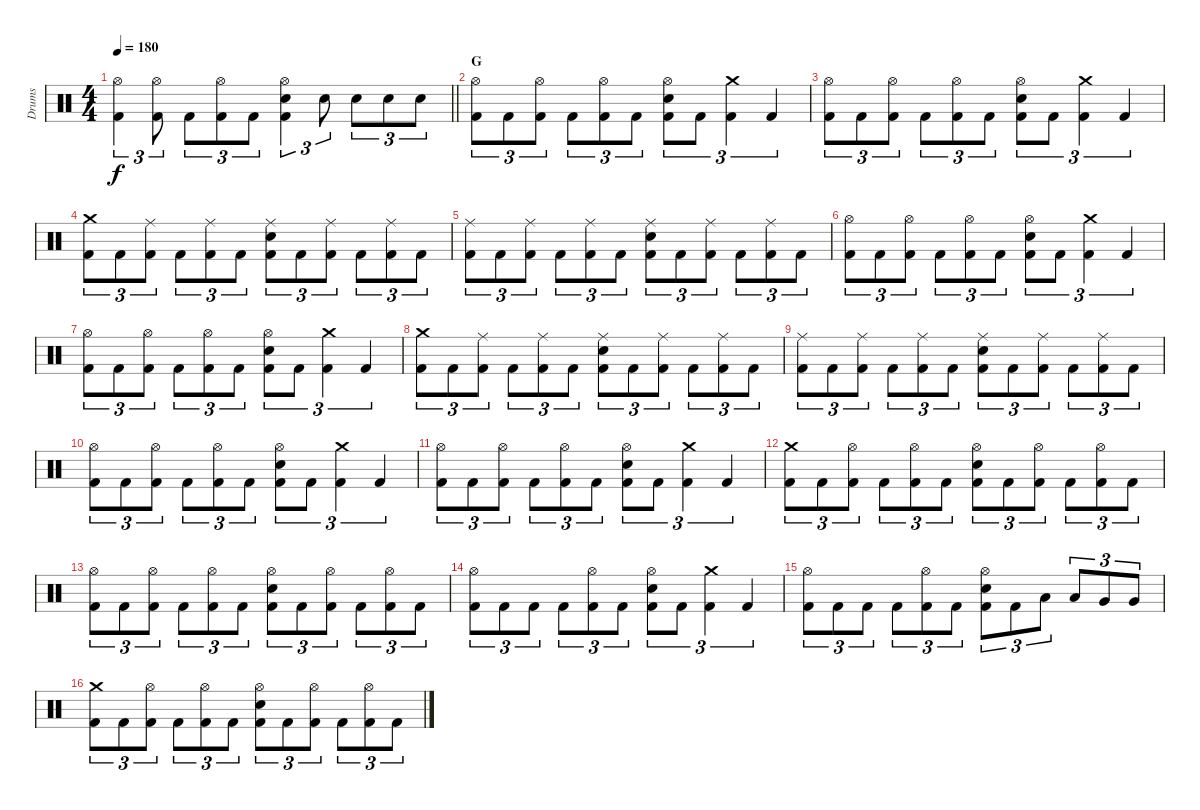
\track ("Drums" "Drums") {instrument percussion}
\staff {score}
\articulation defaults
\ts (4 4)
\tempo 180
\clef neutral
\barLineRight lightlight
\ks c
("Hi-Hat (open)" "Kick (hit) 2").4{tu (3 2) dy f} ("Hi-Hat (open)" "Kick (hit) 2").8{tu (3 2)} "Kick (hit) 2".8{tu (3 2)} ("Hi-Hat (open)" "Kick (hit) 2").8{tu (3 2)} "Kick (hit) 2".8{tu (3 2)} ("Hi-Hat (open)" "Electric Snare (hit)" "Kick (hit) 2").4{tu (3 2)} "Electric Snare (hit)".8{tu (3 2)} "Electric Snare (hit)".8{tu (3 2)} "Electric Snare (hit)".8{tu (3 2)} "Electric Snare (hit)".8{tu (3 2)} |
\section ("" "G")
("Hi-Hat (open)" "Kick (hit) 2").8{tu (3 2)} "Kick (hit) 2".8{tu (3 2)} ("Hi-Hat (open)" "Kick (hit) 2").8{tu (3 2)} "Kick (hit) 2".8{tu (3 2)} ("Hi-Hat (open)" "Kick (hit) 2").8{tu (3 2)} "Kick (hit) 2".8{tu (3 2)} ("Hi-Hat (open)" "Electric Snare (hit)" "Kick (hit) 2").8{tu (3 2)} "Kick (hit) 2".8{tu (3 2)} ("Crash medium (hit)" "Kick (hit) 2").4{tu (3 2)} "Kick (hit) 2".4{tu (3 2)} |
("Hi-Hat (open)" "Kick (hit) 2").8{tu (3 2)} "Kick (hit) 2".8{tu (3 2)} ("Hi-Hat (open)" "Kick (hit) 2").8{tu (3 2)} "Kick (hit) 2".8{tu (3 2)} ("Hi-Hat (open)" "Kick (hit) 2").8{tu (3 2)} "Kick (hit) 2".8{tu (3 2)} ("Hi-Hat (open)" "Electric Snare (hit)" "Kick (hit) 2").8{tu (3 2)} "Kick (hit) 2".8{tu (3 2)} ("Crash medium (hit)" "Kick (hit) 2").4{tu (3 2)} "Kick (hit) 2".4{tu (3 2)} |
("Crash medium (hit)" "Kick (hit) 2").8{tu (3 2)} "Kick (hit) 2".8{tu (3 2)} ("Ride (middle)" "Kick (hit) 2").8{tu (3 2)} "Kick (hit) 2".8{tu (3 2)} ("Ride (middle)" "Kick (hit) 2").8{tu (3 2)} "Kick (hit) 2".8{tu (3 2)} ("Ride (middle)" "Electric Snare (hit)" "Kick (hit) 2").8{tu (3 2)} "Kick (hit) 2".8{tu (3 2)} ("Ride (middle)" "Kick (hit) 2").8{tu (3 2)} "Kick (hit) 2".8{tu (3 2)} ("Ride (middle)" "Kick (hit) 2").8{tu (3 2)} "Kick (hit) 2".8{tu (3 2)} |
("Ride (middle)" "Kick (hit) 2").8{tu (3 2)} "Kick (hit) 2".8{tu (3 2)} ("Ride (middle)" "Kick (hit) 2").8{tu (3 2)} "Kick (hit) 2".8{tu (3 2)} ("Ride (middle)" "Kick (hit) 2").8{tu (3 2)} "Kick (hit) 2".8{tu (3 2)} ("Ride (middle)" "Electric Snare (hit)" "Kick (hit) 2").8{tu (3 2)} "Kick (hit) 2".8{tu (3 2)} ("Ride (middle)" "Kick (hit) 2").8{tu (3 2)} "Kick (hit) 2".8{tu (3 2)} ("Ride (middle)" "Kick (hit) 2").8{tu (3 2)} "Kick (hit) 2".8{tu (3 2)} |
("Hi-Hat (open)" "Kick (hit) 2").8{tu (3 2)} "Kick (hit) 2".8{tu (3 2)} ("Hi-Hat (open)" "Kick (hit) 2").8{tu (3 2)} "Kick (hit) 2".8{tu (3 2)} ("Hi-Hat (open)" "Kick (hit) 2").8{tu (3 2)} "Kick (hit) 2".8{tu (3 2)} ("Hi-Hat (open)" "Electric Snare (hit)" "Kick (hit) 2").8{tu (3 2)} "Kick (hit) 2".8{tu (3 2)} ("Crash medium (hit)" "Kick (hit) 2").4{tu (3 2)} "Kick (hit) 2".4{tu (3 2)} |
("Hi-Hat (open)" "Kick (hit) 2").8{tu (3 2)} "Kick (hit) 2".8{tu (3 2)} ("Hi-Hat (open)" "Kick (hit) 2").8{tu (3 2)} "Kick (hit) 2".8{tu (3 2)} ("Hi-Hat (open)" "Kick (hit) 2").8{tu (3 2)} "Kick (hit) 2".8{tu (3 2)} ("Hi-Hat (open)" "Electric Snare (hit)" "Kick (hit) 2").8{tu (3 2)} "Kick (hit) 2".8{tu (3 2)} ("Crash medium (hit)" "Kick (hit) 2").4{tu (3 2)} "Kick (hit) 2".4{tu (3 2)} |
("Crash medium (hit)" "Kick (hit) 2").8{tu (3 2)} "Kick (hit) 2".8{tu (3 2)} ("Ride (middle)" "Kick (hit) 2").8{tu (3 2)} "Kick (hit) 2".8{tu (3 2)} ("Ride (middle)" "Kick (hit) 2").8{tu (3 2)} "Kick (hit) 2".8{tu (3 2)} ("Ride (middle)" "Electric Snare (hit)" "Kick (hit) 2").8{tu (3 2)} "Kick (hit) 2".8{tu (3 2)} ("Ride (middle)" "Kick (hit) 2").8{tu (3 2)} "Kick (hit) 2".8{tu (3 2)} ("Ride (middle)" "Kick (hit) 2").8{tu (3 2)} "Kick (hit) 2".8{tu (3 2)} |
("Ride (middle)" "Kick (hit) 2").8{tu (3 2)} "Kick (hit) 2".8{tu (3 2)} ("Ride (middle)" "Kick (hit) 2").8{tu (3 2)} "Kick (hit) 2".8{tu (3 2)} ("Ride (middle)" "Kick (hit) 2").8{tu (3 2)} "Kick (hit) 2".8{tu (3 2)} ("Ride (middle)" "Electric Snare (hit)" "Kick (hit) 2").8{tu (3 2)} "Kick (hit) 2".8{tu (3 2)} ("Ride (middle)" "Kick (hit) 2").8{tu (3 2)} "Kick (hit) 2".8{tu (3 2)} ("Ride (middle)" "Kick (hit) 2").8{tu (3 2)} "Kick (hit) 2".8{tu (3 2)} |
("Hi-Hat (open)" "Kick (hit) 2").8{tu (3 2)} "Kick (hit) 2".8{tu (3 2)} ("Hi-Hat (open)" "Kick (hit) 2").8{tu (3 2)} "Kick (hit) 2".8{tu (3 2)} ("Hi-Hat (open)" "Kick (hit) 2").8{tu (3 2)} "Kick (hit) 2".8{tu (3 2)} ("Hi-Hat (open)" "Electric Snare (hit)" "Kick (hit) 2").8{tu (3 2)} "Kick (hit) 2".8{tu (3 2)} ("Crash medium (hit)" "Kick (hit) 2").4{tu (3 2)} "Kick (hit) 2".4{tu (3 2)} |
("Hi-Hat (open)" "Kick (hit) 2").8{tu (3 2)} "Kick (hit) 2".8{tu (3 2)} ("Hi-Hat (open)" "Kick (hit) 2").8{tu (3 2)} "Kick (hit) 2".8{tu (3 2)} ("Hi-Hat (open)" "Kick (hit) 2").8{tu (3 2)} "Kick (hit) 2".8{tu (3 2)} ("Hi-Hat (open)" "Electric Snare (hit)" "Kick (hit) 2").8{tu (3 2)} "Kick (hit) 2".8{tu (3 2)} ("Crash medium (hit)" "Kick (hit) 2").4{tu (3 2)} "Kick (hit) 2".4{tu (3 2)} |
("Crash medium (hit)" "Kick (hit) 2").8{tu (3 2)} "Kick (hit) 2".8{tu (3 2)} ("Hi-Hat (open)" "Kick (hit) 2").8{tu (3 2)} "Kick (hit) 2".8{tu (3 2)} ("Hi-Hat (open)" "Kick (hit) 2").8{tu (3 2)} "Kick (hit) 2".8{tu (3 2)} ("Hi-Hat (open)" "Electric Snare (hit)" "Kick (hit) 2").8{tu (3 2)} "Kick (hit) 2".8{tu (3 2)} ("Hi-Hat (open)" "Kick (hit) 2").8{tu (3 2)} "Kick (hit) 2".8{tu (3 2)} ("Hi-Hat (open)" "Kick (hit) 2").8{tu (3 2)} "Kick (hit) 2".8{tu (3 2)} |
("Hi-Hat (open)" "Kick (hit) 2").8{tu (3 2)} "Kick (hit) 2".8{tu (3 2)} ("Hi-Hat (open)" "Kick (hit) 2").8{tu (3 2)} "Kick (hit) 2".8{tu (3 2)} ("Hi-Hat (open)" "Kick (hit) 2").8{tu (3 2)} "Kick (hit) 2".8{tu (3 2)} ("Hi-Hat (open)" "Electric Snare (hit)" "Kick (hit) 2").8{tu (3 2)} "Kick (hit) 2".8{tu (3 2)} ("Hi-Hat (open)" "Kick (hit) 2").8{tu (3 2)} "Kick (hit) 2".8{tu (3 2)} ("Hi-Hat (open)" "Kick (hit) 2").8{tu (3 2)} "Kick (hit) 2".8{tu (3 2)} |
("Hi-Hat (open)" "Kick (hit) 2").8{tu (3 2)} "Kick (hit) 2".8{tu (3 2)} "Kick (hit) 2".8{tu (3 2)} "Kick (hit) 2".8{tu (3 2)} ("Hi-Hat (open)" "Kick (hit) 2").8{tu (3 2)} "Kick (hit) 2".8{tu (3 2)} ("Hi-Hat (open)" "Electric Snare (hit)" "Kick (hit) 2").8{tu (3 2)} "Kick (hit) 2".8{tu (3 2)} ("Crash medium (hit)" "Kick (hit) 2").4{tu (3 2)} "Kick (hit) 2".4{tu (3 2)} |
("Hi-Hat (open)" "Kick (hit) 2").8{tu (3 2)} "Kick (hit) 2".8{tu (3 2)} "Kick (hit) 2".8{tu (3 2)} "Kick (hit) 2".8{tu (3 2)} ("Hi-Hat (open)" "Kick (hit) 2").8{tu (3 2)} "Kick (hit) 2".8{tu (3 2)} ("Hi-Hat (open)" "Electric Snare (hit)" "Kick (hit) 2").8{tu (3 2)} "Kick (hit) 2".8{tu (3 2)} "Low Tom (hit)".8{tu (3 2)} "Low Tom (hit)".8{tu (3 2)} "Very Low Tom (hit)".8{tu (3 2)} "Very Low Tom (hit)".8{tu (3 2)} |
("Crash medium (hit)" "Kick (hit) 2").8{tu (3 2)} "Kick (hit) 2".8{tu (3 2)} ("Hi-Hat (open)" "Kick (hit) 2").8{tu (3 2)} "Kick (hit) 2".8{tu (3 2)} ("Hi-Hat (open)" "Kick (hit) 2").8{tu (3 2)} "Kick (hit) 2".8{tu (3 2)} ("Hi-Hat (open)" "Electric Snare (hit)" "Kick (hit) 2").8{tu (3 2)} "Kick (hit) 2".8{tu (3 2)} ("Hi-Hat (open)" "Kick (hit) 2").8{tu (3 2)} "Kick (hit) 2".8{tu (3 2)} ("Hi-Hat (open)" "Kick (hit) 2").8{tu (3 2)} "Kick (hit) 2".8{tu (3 2)}
